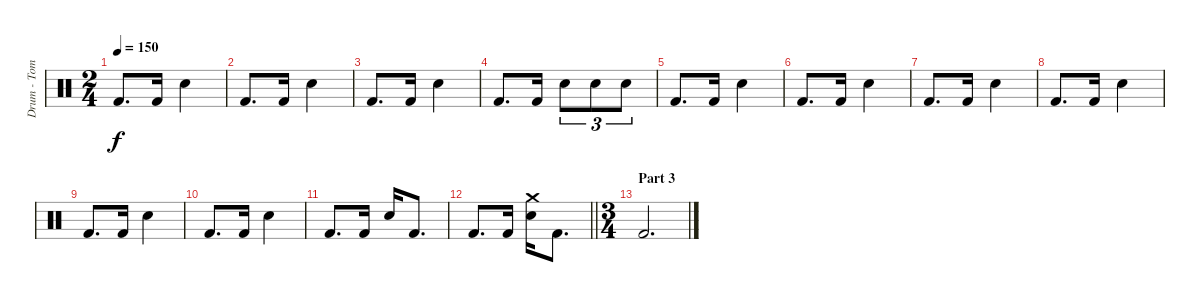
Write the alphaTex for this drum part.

\track ("Drum - Tom" "Drum - Tom") {instrument percussion}
\staff {score}
\articulation defaults
\ts (2 4)
\tempo 150
\clef neutral
\ks c "Kick (hit) 2".8{d dy f} "Kick (hit) 2".16 "Electric Snare (hit)".4
|
"Kick (hit) 2".8{d} "Kick (hit) 2".16 "Electric Snare (hit)".4 |
"Kick (hit) 2".8{d} "Kick (hit) 2".16 "Electric Snare (hit)".4 |
"Kick (hit) 2".8{d} "Kick (hit) 2".16 "Electric Snare (hit)".8{tu (3 2)} "Electric Snare (hit)".8{tu (3 2)} "Electric Snare (hit)".8{tu (3 2)} |
"Kick (hit) 2".8{d} "Kick (hit) 2".16 "Electric Snare (hit)".4 |
"Kick (hit) 2".8{d} "Kick (hit) 2".16 "Electric Snare (hit)".4 |
"Kick (hit) 2".8{d} "Kick (hit) 2".16 "Electric Snare (hit)".4 |
"Kick (hit) 2".8{d} "Kick (hit) 2".16 "Electric Snare (hit)".4 |
"Kick (hit) 2".8{d} "Kick (hit) 2".16 "Electric Snare (hit)".4 |
"Kick (hit) 2".8{d} "Kick (hit) 2".16 "Electric Snare (hit)".4 |
"Kick (hit) 2".8{d} "Kick (hit) 2".16 "Electric Snare (hit)".16 "Kick (hit) 2".8{d} |
\barLineRight lightlight "Kick (hit) 2".8{d} "Kick (hit) 2".16
("Crash medium (hit)" "Electric Snare (hit)").16 "Kick (hit) 2".8{d} |
\ts (3 4)
\section ("" "Part 3")
"Kick (hit) 2".2{d}
